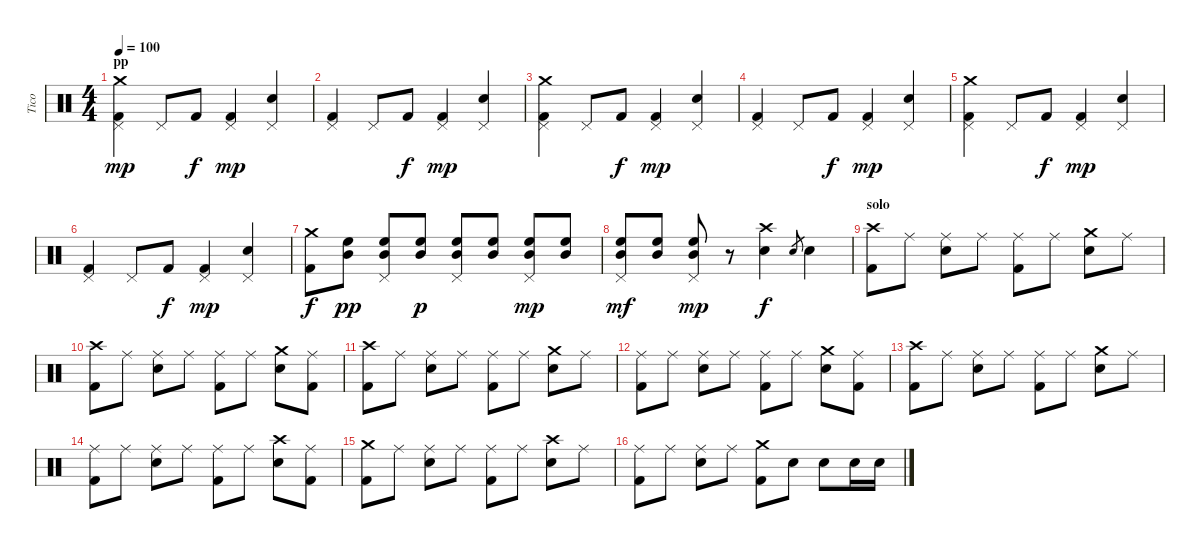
\track ("Tico" "Tico") {instrument percussion}
\staff {score}
\articulation defaults
\ts (4 4)
\section ("" "pp")
\tempo 100
\clef neutral
\ks c
("Crash medium (hit)" "Pedal Hi-Hat (hit)" "Kick (hit) 2").4{dy mp} "Pedal Hi-Hat (hit)".8 "Kick (hit) 2".8{dy f} ("Pedal Hi-Hat (hit)" "Kick (hit) 2").4{dy mp} ("Pedal Hi-Hat (hit)" "Snare (hit) 2").4 |
("Pedal Hi-Hat (hit)" "Kick (hit) 2").4 "Pedal Hi-Hat (hit)".8 "Kick (hit) 2".8{dy f} ("Pedal Hi-Hat (hit)" "Kick (hit) 2").4{dy mp} ("Pedal Hi-Hat (hit)" "Snare (hit) 2").4 |
("Crash medium (hit)" "Pedal Hi-Hat (hit)" "Kick (hit) 2").4 "Pedal Hi-Hat (hit)".8 "Kick (hit) 2".8{dy f} ("Pedal Hi-Hat (hit)" "Kick (hit) 2").4{dy mp} ("Pedal Hi-Hat (hit)" "Snare (hit) 2").4 |
("Pedal Hi-Hat (hit)" "Kick (hit) 2").4 "Pedal Hi-Hat (hit)".8 "Kick (hit) 2".8{dy f} ("Pedal Hi-Hat (hit)" "Kick (hit) 2").4{dy mp} ("Pedal Hi-Hat (hit)" "Snare (hit) 2").4 |
("Crash medium (hit)" "Pedal Hi-Hat (hit)" "Kick (hit) 2").4 "Pedal Hi-Hat (hit)".8 "Kick (hit) 2".8{dy f} ("Pedal Hi-Hat (hit)" "Kick (hit) 2").4{dy mp} ("Pedal Hi-Hat (hit)" "Snare (hit) 2").4 |
("Pedal Hi-Hat (hit)" "Kick (hit) 2").4 "Pedal Hi-Hat (hit)".8 "Kick (hit) 2".8{dy f} ("Pedal Hi-Hat (hit)" "Kick (hit) 2").4{dy mp} ("Pedal Hi-Hat (hit)" "Snare (hit) 2").4 |
("Crash medium (hit)" "Kick (hit) 2").8{dy f} ("High Floor Tom (hit)" "Mid Tom (hit)").8{dy pp} ("Pedal Hi-Hat (hit)" "High Floor Tom (hit)" "Mid Tom (hit)").8 ("High Floor Tom (hit)" "Mid Tom (hit)").8{dy p} ("Pedal Hi-Hat (hit)" "High Floor Tom (hit)" "Mid Tom (hit)").8 ("High Floor Tom (hit)" "Mid Tom (hit)").8 ("Pedal Hi-Hat (hit)" "High Floor Tom (hit)" "Mid Tom (hit)").8{dy mp} ("High Floor Tom (hit)" "Mid Tom (hit)").8 |
("Pedal Hi-Hat (hit)" "High Floor Tom (hit)" "Mid Tom (hit)").8{dy mf} ("High Floor Tom (hit)" "Mid Tom (hit)").8 ("Pedal Hi-Hat (hit)" "High Floor Tom (hit)" "Mid Tom (hit)").8{dy mp} r.8 ("Crash high (hit)" "Snare (hit) 2").4{dy f} "Snare (hit) 2".8{gr} "Snare (hit) 2".4 |
\section ("" "solo")
("Crash high (hit)" "Kick (hit) 2").8 "Ride (middle)".8 ("Ride (middle)" "Snare (hit) 2").8 "Ride (middle)".8 ("Ride (middle)" "Kick (hit) 2").8 "Ride (middle)".8 ("Crash medium (hit)" "Snare (hit) 2").8 "Ride (middle)".8 |
("Crash high (hit)" "Kick (hit) 2").8 "Ride (middle)".8 ("Ride (middle)" "Snare (hit) 2").8 "Ride (middle)".8 ("Ride (middle)" "Kick (hit) 2").8 "Ride (middle)".8 ("Crash medium (hit)" "Snare (hit) 2").8 ("Ride (middle)" "Kick (hit) 2").8 |
("Crash high (hit)" "Kick (hit) 2").8 "Ride (middle)".8 ("Ride (middle)" "Snare (hit) 2").8 "Ride (middle)".8 ("Ride (middle)" "Kick (hit) 2").8 "Ride (middle)".8 ("Crash medium (hit)" "Snare (hit) 2").8 "Ride (middle)".8 |
("Ride (middle)" "Kick (hit) 2").8 "Ride (middle)".8 ("Ride (middle)" "Snare (hit) 2").8 "Ride (middle)".8 ("Ride (middle)" "Kick (hit) 2").8 "Ride (middle)".8 ("Crash medium (hit)" "Snare (hit) 2").8 ("Ride (middle)" "Kick (hit) 2").8 |
("Crash high (hit)" "Kick (hit) 2").8 "Ride (middle)".8 ("Ride (middle)" "Snare (hit) 2").8 "Ride (middle)".8 ("Ride (middle)" "Kick (hit) 2").8 "Ride (middle)".8 ("Crash medium (hit)" "Snare (hit) 2").8 "Ride (middle)".8 |
("Ride (middle)" "Kick (hit) 2").8 "Ride (middle)".8 ("Ride (middle)" "Snare (hit) 2").8 "Ride (middle)".8 ("Ride (middle)" "Kick (hit) 2").8 "Ride (middle)".8 ("Crash high (hit)" "Snare (hit) 2").8 ("Ride (middle)" "Kick (hit) 2").8 |
("Crash medium (hit)" "Kick (hit) 2").8 "Ride (middle)".8 ("Ride (middle)" "Snare (hit) 2").8 "Ride (middle)".8 ("Ride (middle)" "Kick (hit) 2").8 "Ride (middle)".8 ("Crash high (hit)" "Snare (hit) 2").8 "Ride (middle)".8 |
("Ride (middle)" "Kick (hit) 2").8 "Ride (middle)".8 ("Ride (middle)" "Snare (hit) 2").8 "Ride (middle)".8 ("Crash medium (hit)" "Kick (hit) 2").8 "Snare (hit) 2".8 "Snare (hit) 2".8 "Snare (hit) 2".16 "Snare (hit) 2".16
